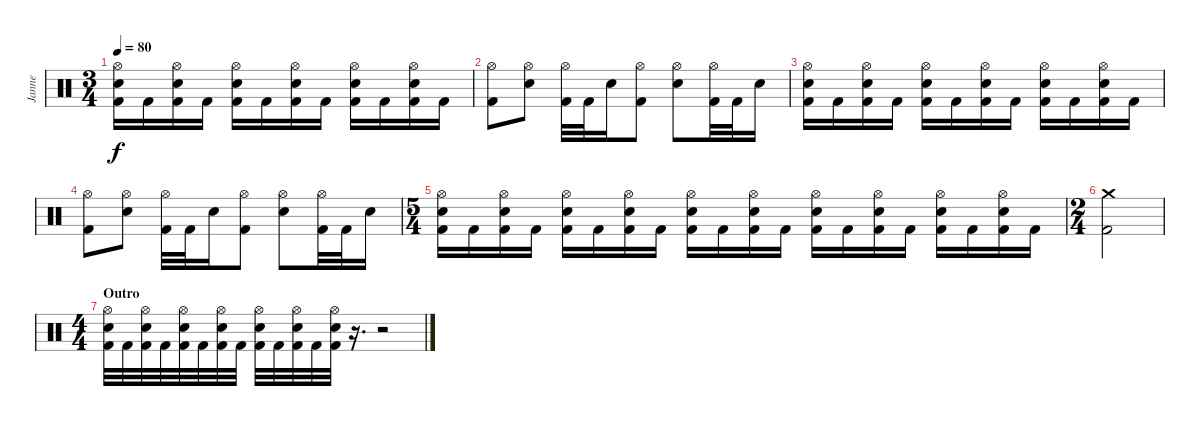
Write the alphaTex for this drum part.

\track ("Janne" "Janne") {instrument percussion}
\staff {score}
\articulation defaults
\ts (3 4)
\tempo 80
\clef neutral
\ks c
("Hi-Hat (open)" "Electric Snare (hit)" "Kick (hit) 2").16{dy f} "Kick (hit) 2".16 ("Hi-Hat (open)" "Electric Snare (hit)" "Kick (hit) 2").16 "Kick (hit) 2".16 ("Hi-Hat (open)" "Electric Snare (hit)" "Kick (hit) 2").16 "Kick (hit) 2".16 ("Hi-Hat (open)" "Electric Snare (hit)" "Kick (hit) 2").16 "Kick (hit) 2".16 ("Hi-Hat (open)" "Electric Snare (hit)" "Kick (hit) 2").16 "Kick (hit) 2".16 ("Hi-Hat (open)" "Electric Snare (hit)" "Kick (hit) 2").16 "Kick (hit) 2".16 |
("Hi-Hat (open)" "Kick (hit) 2").8 ("Hi-Hat (open)" "Electric Snare (hit)").8 ("Hi-Hat (open)" "Kick (hit) 2").32 "Kick (hit) 2".32 "Electric Snare (hit)".16 ("Hi-Hat (open)" "Kick (hit) 2").8 ("Hi-Hat (open)" "Electric Snare (hit)").8 ("Hi-Hat (open)" "Kick (hit) 2").32 "Kick (hit) 2".32 "Electric Snare (hit)".16 |
("Hi-Hat (open)" "Electric Snare (hit)" "Kick (hit) 2").16 "Kick (hit) 2".16 ("Hi-Hat (open)" "Electric Snare (hit)" "Kick (hit) 2").16 "Kick (hit) 2".16 ("Hi-Hat (open)" "Electric Snare (hit)" "Kick (hit) 2").16 "Kick (hit) 2".16 ("Hi-Hat (open)" "Electric Snare (hit)" "Kick (hit) 2").16 "Kick (hit) 2".16 ("Hi-Hat (open)" "Electric Snare (hit)" "Kick (hit) 2").16 "Kick (hit) 2".16 ("Hi-Hat (open)" "Electric Snare (hit)" "Kick (hit) 2").16 "Kick (hit) 2".16 |
("Hi-Hat (open)" "Kick (hit) 2").8 ("Hi-Hat (open)" "Electric Snare (hit)").8 ("Hi-Hat (open)" "Kick (hit) 2").32 "Kick (hit) 2".32 "Electric Snare (hit)".16 ("Hi-Hat (open)" "Kick (hit) 2").8 ("Hi-Hat (open)" "Electric Snare (hit)").8 ("Hi-Hat (open)" "Kick (hit) 2").32 "Kick (hit) 2".32 "Electric Snare (hit)".16 |
\ts (5 4)
("Hi-Hat (open)" "Electric Snare (hit)" "Kick (hit) 2").16 "Kick (hit) 2".16 ("Hi-Hat (open)" "Electric Snare (hit)" "Kick (hit) 2").16 "Kick (hit) 2".16 ("Hi-Hat (open)" "Electric Snare (hit)" "Kick (hit) 2").16 "Kick (hit) 2".16 ("Hi-Hat (open)" "Electric Snare (hit)" "Kick (hit) 2").16 "Kick (hit) 2".16 ("Hi-Hat (open)" "Electric Snare (hit)" "Kick (hit) 2").16 "Kick (hit) 2".16 ("Hi-Hat (open)" "Electric Snare (hit)" "Kick (hit) 2").16 "Kick (hit) 2".16 ("Hi-Hat (open)" "Electric Snare (hit)" "Kick (hit) 2").16 "Kick (hit) 2".16 ("Hi-Hat (open)" "Electric Snare (hit)" "Kick (hit) 2").16 "Kick (hit) 2".16 ("Hi-Hat (open)" "Electric Snare (hit)" "Kick (hit) 2").16 "Kick (hit) 2".16 ("Hi-Hat (open)" "Electric Snare (hit)" "Kick (hit) 2").16 "Kick (hit) 2".16 |
\ts (2 4)
("Crash medium (hit)" "Kick (hit) 2").2 |
\ts (4 4)
\section ("" "Outro")
("Hi-Hat (open)" "Electric Snare (hit)" "Kick (hit) 2").32 "Kick (hit) 2".32 ("Hi-Hat (open)" "Electric Snare (hit)" "Kick (hit) 2").32 "Kick (hit) 2".32 ("Hi-Hat (open)" "Electric Snare (hit)" "Kick (hit) 2").32 "Kick (hit) 2".32 ("Hi-Hat (open)" "Electric Snare (hit)" "Kick (hit) 2").32 "Kick (hit) 2".32 ("Hi-Hat (open)" "Electric Snare (hit)" "Kick (hit) 2").32 "Kick (hit) 2".32 ("Hi-Hat (open)" "Electric Snare (hit)" "Kick (hit) 2").32 "Kick (hit) 2".32 ("Hi-Hat (open)" "Electric Snare (hit)" "Kick (hit) 2").32 r.16{d} r.2
